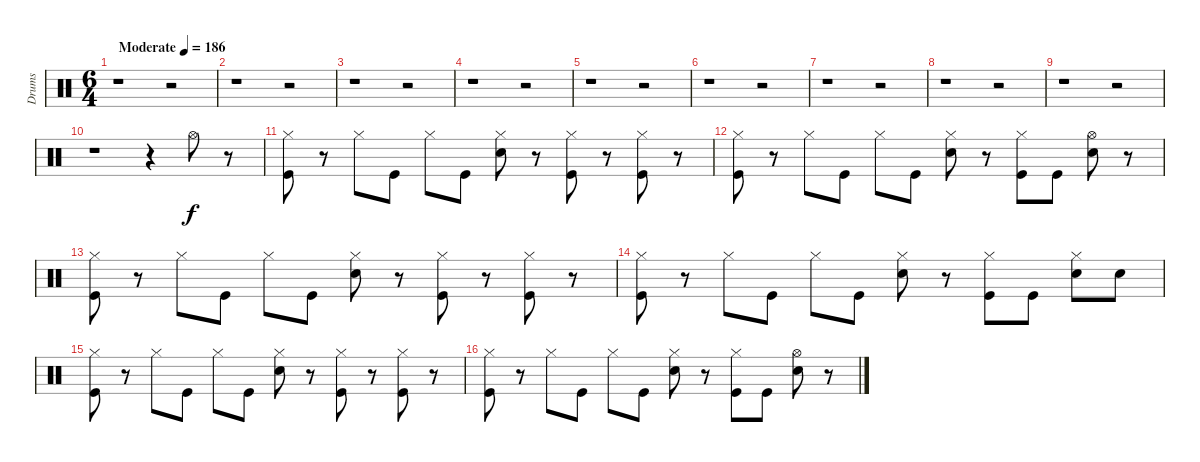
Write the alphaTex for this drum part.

\track ("Drums" "Drums") {instrument percussion}
\staff {score}
\articulation defaults
\ts (6 4)
\tempo (186 "Moderate")
\clef neutral
\ks c
r.1{dy f} r.2 |
r.1 r.2 |
r.1 r.2 |
r.1 r.2 |
r.1 r.2 |
r.1 r.2 |
r.1 r.2 |
r.1 r.2 |
r.1 r.2 |
r.1 r.4 "Hi-Hat (open)".8 r.8 |
("Hi-Hat (closed)" "Kick (hit)").8 r.8 "Hi-Hat (closed)".8 "Kick (hit)".8 "Hi-Hat (closed)".8 "Kick (hit)".8 ("Hi-Hat (closed)" "Snare (hit) 2").8 r.8 ("Hi-Hat (closed)" "Kick (hit)").8 r.8 ("Hi-Hat (closed)" "Kick (hit)").8 r.8 |
("Hi-Hat (closed)" "Kick (hit)").8 r.8 "Hi-Hat (closed)".8 "Kick (hit)".8 "Hi-Hat (closed)".8 "Kick (hit)".8 ("Hi-Hat (closed)" "Snare (hit) 2").8 r.8 ("Hi-Hat (closed)" "Kick (hit)").8 "Kick (hit)".8 ("Snare (hit) 2" "Hi-Hat (open)").8 r.8 |
("Hi-Hat (closed)" "Kick (hit)").8 r.8 "Hi-Hat (closed)".8 "Kick (hit)".8 "Hi-Hat (closed)".8 "Kick (hit)".8 ("Hi-Hat (closed)" "Snare (hit) 2").8 r.8 ("Hi-Hat (closed)" "Kick (hit)").8 r.8 ("Hi-Hat (closed)" "Kick (hit)").8 r.8 |
("Hi-Hat (closed)" "Kick (hit)").8 r.8 "Hi-Hat (closed)".8 "Kick (hit)".8 "Hi-Hat (closed)".8 "Kick (hit)".8 ("Hi-Hat (closed)" "Snare (hit) 2").8 r.8 ("Hi-Hat (closed)" "Kick (hit)").8 "Kick (hit)".8 ("Hi-Hat (closed)" "Snare (hit) 2").8 "Snare (hit) 2".8 |
("Hi-Hat (closed)" "Kick (hit)").8 r.8 "Hi-Hat (closed)".8 "Kick (hit)".8 "Hi-Hat (closed)".8 "Kick (hit)".8 ("Hi-Hat (closed)" "Snare (hit) 2").8 r.8 ("Hi-Hat (closed)" "Kick (hit)").8 r.8 ("Hi-Hat (closed)" "Kick (hit)").8 r.8 |
("Hi-Hat (closed)" "Kick (hit)").8 r.8 "Hi-Hat (closed)".8 "Kick (hit)".8 "Hi-Hat (closed)".8 "Kick (hit)".8 ("Hi-Hat (closed)" "Snare (hit) 2").8 r.8 ("Hi-Hat (closed)" "Kick (hit)").8 "Kick (hit)".8 ("Snare (hit) 2" "Hi-Hat (open)").8 r.8
